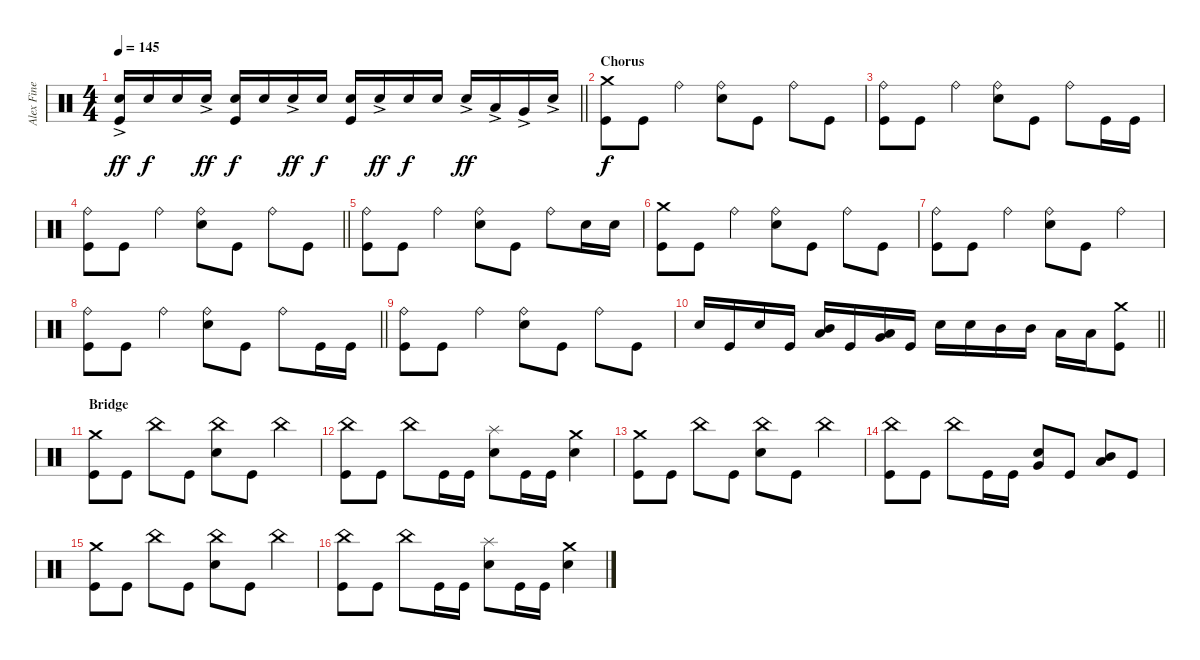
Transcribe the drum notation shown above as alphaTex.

\track ("Alex Fine (Drums)" "Alex Fine ") {instrument percussion}
\staff {score}
\articulation defaults
\ts (4 4)
\tempo 145
\clef neutral
\barLineRight lightlight
\ks c
("Snare (hit) 2"{ac} "Kick (hit)").16{dy ff} "Snare (hit) 2".16{dy f} "Snare (hit) 2".16 "Snare (hit) 2"{ac}.16{dy ff} ("Snare (hit) 2" "Kick (hit)").16{dy f} "Snare (hit) 2".16 "Snare (hit) 2"{ac}.16{dy ff} "Snare (hit) 2".16{dy f} ("Snare (hit) 2" "Kick (hit)").16 "Snare (hit) 2"{ac}.16{dy ff} "Snare (hit) 2".16{dy f} "Snare (hit) 2".16 "Snare (hit) 2"{ac}.16{dy ff} "Low Tom (hit)"{ac}.16 "Very Low Tom (hit)"{ac}.16 "Snare (hit) 2"{ac}.16 |
\section ("" "Chorus")
("Crash medium (hit)" "Kick (hit)").8{dy f} "Kick (hit)".8 "Ride (bell)".4 ("Ride (bell)" "Snare (hit) 2").8 "Kick (hit)".8 "Ride (bell)".8 "Kick (hit)".8 |
("Ride (bell)" "Kick (hit)").8 "Kick (hit)".8 "Ride (bell)".4 ("Ride (bell)" "Snare (hit) 2").8 "Kick (hit)".8 "Ride (bell)".8 "Kick (hit)".16 "Kick (hit)".16 |
\barLineRight lightlight
("Ride (bell)" "Kick (hit)").8 "Kick (hit)".8 "Ride (bell)".4 ("Ride (bell)" "Snare (hit) 2").8 "Kick (hit)".8 "Ride (bell)".8 "Kick (hit)".8 |
("Ride (bell)" "Kick (hit)").8 "Kick (hit)".8 "Ride (bell)".4 ("Ride (bell)" "Snare (hit) 2").8 "Kick (hit)".8 "Ride (bell)".8 "Snare (hit) 2".16 "Snare (hit) 2".16 |
("Crash medium (hit)" "Kick (hit)").8 "Kick (hit)".8 "Ride (bell)".4 ("Ride (bell)" "Snare (hit) 2").8 "Kick (hit)".8 "Ride (bell)".8 "Kick (hit)".8 |
("Ride (bell)" "Kick (hit)").8 "Kick (hit)".8 "Ride (bell)".4 ("Ride (bell)" "Snare (hit) 2").8 "Kick (hit)".8 "Ride (bell)".4 |
\barLineRight lightlight
("Ride (bell)" "Kick (hit)").8 "Kick (hit)".8 "Ride (bell)".4 ("Ride (bell)" "Snare (hit) 2").8 "Kick (hit)".8 "Ride (bell)".8 "Kick (hit)".16 "Kick (hit)".16 |
("Ride (bell)" "Kick (hit)").8 "Kick (hit)".8 "Ride (bell)".4 ("Ride (bell)" "Snare (hit) 2").8 "Kick (hit)".8 "Ride (bell)".8 "Kick (hit)".8 |
\barLineRight lightlight "Snare (hit) 2".16 "Kick (hit)".16 "Snare (hit) 2".16 "Kick (hit)".16
("Mid Tom (hit)" "Low Tom (hit)").16 "Kick (hit)".16 ("Low Tom (hit)" "Very Low Tom (hit)").16 "Kick (hit)".16 "Snare (hit) 2".16 "Snare (hit) 2".16 "Mid Tom (hit)".16 "Mid Tom (hit)".16 "Low Tom (hit)".16 "Low Tom (hit)".16 ("Crash medium (hit)" "Kick (hit)").8 |
\section ("" "Bridge")
("Crash medium (hit)" "Kick (hit)").8 "Kick (hit)".8 "China (hit)".8 "Kick (hit)".8 ("China (hit)" "Snare (hit) 2").8 "Kick (hit)".8 "China (hit)".4 |
("China (hit)" "Kick (hit)").8 "Kick (hit)".8 "China (hit)".8 "Kick (hit)".16 "Kick (hit)".16 ("Splash (hit)" "Snare (hit) 2").8 "Kick (hit)".16 "Kick (hit)".16 ("Crash medium (hit)" "Electric Snare (hit)").4 |
("Crash medium (hit)" "Kick (hit)").8 "Kick (hit)".8 "China (hit)".8 "Kick (hit)".8 ("China (hit)" "Snare (hit) 2").8 "Kick (hit)".8 "China (hit)".4 |
("China (hit)" "Kick (hit)").8 "Kick (hit)".8 "China (hit)".8 "Kick (hit)".16 "Kick (hit)".16 ("Snare (hit) 2" "Very Low Tom (hit)").8 "Kick (hit)".8 ("Mid Tom (hit)" "Low Tom (hit)").8 "Kick (hit)".8 |
("Crash medium (hit)" "Kick (hit)").8 "Kick (hit)".8 "China (hit)".8 "Kick (hit)".8 ("China (hit)" "Snare (hit) 2").8 "Kick (hit)".8 "China (hit)".4 |
("China (hit)" "Kick (hit)").8 "Kick (hit)".8 "China (hit)".8 "Kick (hit)".16 "Kick (hit)".16 ("Splash (hit)" "Snare (hit) 2").8 "Kick (hit)".16 "Kick (hit)".16 ("Crash medium (hit)" "Snare (hit) 2").4
